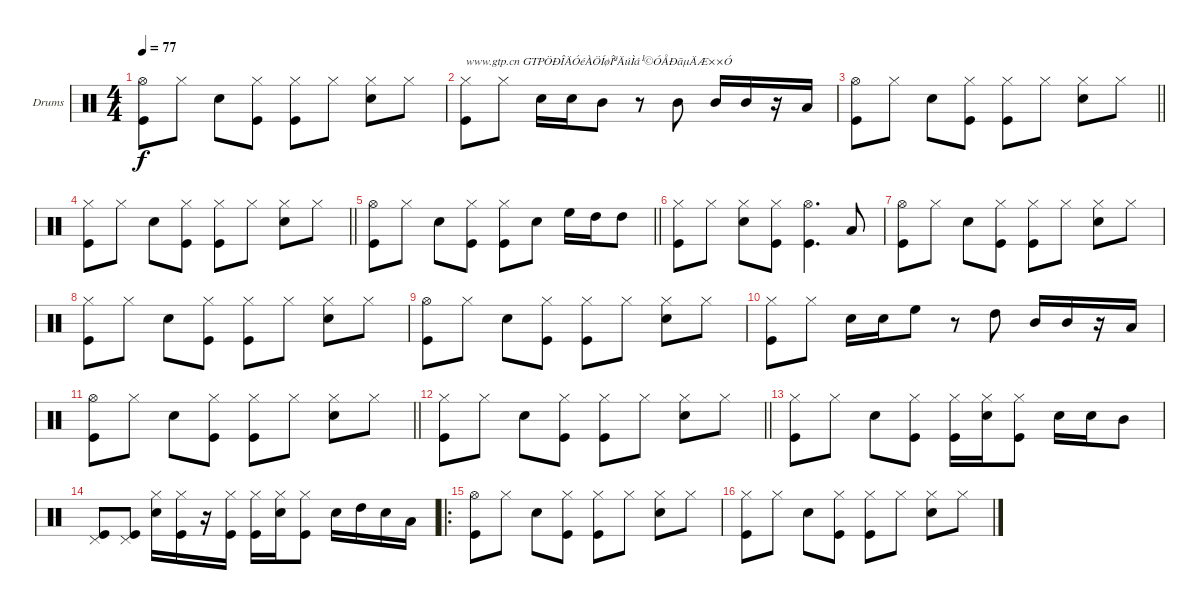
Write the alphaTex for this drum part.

\bracketExtendMode groupsimilarinstruments
\firstSystemTrackNameOrientation horizontal
\otherSystemsTrackNameOrientation horizontal
\track ("Drumkit" "Drums") {instrument percussion}
\staff {score}
\articulation defaults
\ts (4 4)
\tempo 77
\clef neutral
\ks c
("Kick (hit)" "Hi-Hat (open)").8{dy f} "Hi-Hat (closed)".8 "Snare (hit) 2".8 ("Hi-Hat (closed)" "Kick (hit)").8 ("Hi-Hat (closed)" "Kick (hit)").8 "Hi-Hat (closed)".8 ("Hi-Hat (closed)" "Snare (hit) 2").8 "Hi-Hat (closed)".8 |
("Kick (hit)" "Hi-Hat (closed)").8{txt "www.gtp.cn GTPÖÐÎÄÓéÀÖÍøÎªÄúÌá¹©ÓÅÐãµÄÆ××Ó"} "Hi-Hat (closed)".8 "Snare (hit) 2".16 "Snare (hit) 2".16 "Mid Tom (hit)".8 r.8 "Mid Tom (hit)".8 "Mid Tom (hit)".16 "Mid Tom (hit)".16 r.16 "Low Tom (hit)".16 |
\barLineRight lightlight
("Hi-Hat (open)" "Kick (hit)").8 "Hi-Hat (closed)".8 "Snare (hit) 2".8 ("Hi-Hat (closed)" "Kick (hit)").8 ("Hi-Hat (closed)" "Kick (hit)").8 "Hi-Hat (closed)".8 ("Hi-Hat (closed)" "Snare (hit) 2").8 "Hi-Hat (closed)".8 |
\section ("" "")
\barLineRight lightlight
("Kick (hit)" "Hi-Hat (closed)").8 "Hi-Hat (closed)".8 "Snare (hit) 2".8 ("Hi-Hat (closed)" "Kick (hit)").8 ("Hi-Hat (closed)" "Kick (hit)").8 "Hi-Hat (closed)".8 ("Hi-Hat (closed)" "Snare (hit) 2").8 "Hi-Hat (closed)".8 |
\section ("" "")
\barLineRight lightlight
("Kick (hit)" "Hi-Hat (open)").8 "Hi-Hat (closed)".8 "Snare (hit) 2".8 ("Hi-Hat (closed)" "Kick (hit)").8 ("Hi-Hat (closed)" "Kick (hit)").8 "Snare (hit) 2".8 "High Floor Tom (hit)".16 "High Tom (hit)".16 "High Tom (hit)".8 |
\section ("" "")
("Hi-Hat (closed)" "Kick (hit)").8 "Hi-Hat (closed)".8 ("Hi-Hat (closed)" "Snare (hit) 2").8 ("Hi-Hat (closed)" "Kick (hit)").8 ("Kick (hit)" "Hi-Hat (open)").4{d} "Low Tom (hit)".8 |
("Hi-Hat (open)" "Kick (hit)").8 "Hi-Hat (closed)".8 "Snare (hit) 2".8 ("Hi-Hat (closed)" "Kick (hit)").8 ("Hi-Hat (closed)" "Kick (hit)").8 "Hi-Hat (closed)".8 ("Hi-Hat (closed)" "Snare (hit) 2").8 "Hi-Hat (closed)".8 |
("Kick (hit)" "Hi-Hat (closed)").8 "Hi-Hat (closed)".8 "Snare (hit) 2".8 ("Hi-Hat (closed)" "Kick (hit)").8 ("Hi-Hat (closed)" "Kick (hit)").8 "Hi-Hat (closed)".8 ("Hi-Hat (closed)" "Snare (hit) 2").8 "Hi-Hat (closed)".8 |
("Kick (hit)" "Hi-Hat (open)").8 "Hi-Hat (closed)".8 "Snare (hit) 2".8 ("Hi-Hat (closed)" "Kick (hit)").8 ("Hi-Hat (closed)" "Kick (hit)").8 "Hi-Hat (closed)".8 ("Hi-Hat (closed)" "Snare (hit) 2").8 "Hi-Hat (closed)".8 |
("Kick (hit)" "Hi-Hat (closed)").8 "Hi-Hat (closed)".8 "Snare (hit) 2".16 "Snare (hit) 2".16 "High Floor Tom (hit)".8 r.8 "High Tom (hit)".8 "Mid Tom (hit)".16 "Mid Tom (hit)".16 r.16 "Low Tom (hit)".16 |
\barLineRight lightlight
("Kick (hit)" "Hi-Hat (open)").8 "Hi-Hat (closed)".8 "Snare (hit) 2".8 ("Hi-Hat (closed)" "Kick (hit)").8 ("Hi-Hat (closed)" "Kick (hit)").8 "Hi-Hat (closed)".8 ("Hi-Hat (closed)" "Snare (hit) 2").8 "Hi-Hat (closed)".8 |
\barLineRight lightlight
("Kick (hit)" "Hi-Hat (closed)").8 "Hi-Hat (closed)".8 "Snare (hit) 2".8 ("Hi-Hat (closed)" "Kick (hit)").8 ("Hi-Hat (closed)" "Kick (hit)").8 "Hi-Hat (closed)".8 ("Hi-Hat (closed)" "Snare (hit) 2").8 "Hi-Hat (closed)".8 |
("Kick (hit)" "Hi-Hat (closed)").8 "Hi-Hat (closed)".8 "Snare (hit) 2".8 ("Hi-Hat (closed)" "Kick (hit)").8 ("Hi-Hat (closed)" "Kick (hit)").16 ("Hi-Hat (closed)" "Snare (hit) 2").16 ("Hi-Hat (closed)" "Kick (hit)").8 "Snare (hit) 2".16 "Snare (hit) 2".16 "Mid Tom (hit)".8 |
("Pedal Hi-Hat (hit)" "Kick (hit)").8 ("Pedal Hi-Hat (hit)" "Kick (hit)").8 ("Hi-Hat (closed)" "Snare (hit) 2").16 ("Hi-Hat (closed)" "Kick (hit)").16 r.16 ("Hi-Hat (closed)" "Kick (hit)").16 ("Hi-Hat (closed)" "Kick (hit)").16 ("Hi-Hat (closed)" "Snare (hit) 2").16 ("Hi-Hat (closed)" "Kick (hit)").8 "Snare (hit) 2".16 "High Tom (hit)".16 "Snare (hit) 2".16 "Low Tom (hit)".16 |
\ro
("Hi-Hat (open)" "Kick (hit)").8 "Hi-Hat (closed)".8 "Snare (hit) 2".8 ("Hi-Hat (closed)" "Kick (hit)").8 ("Hi-Hat (closed)" "Kick (hit)").8 "Hi-Hat (closed)".8 ("Hi-Hat (closed)" "Snare (hit) 2").8 "Hi-Hat (closed)".8 |
("Kick (hit)" "Hi-Hat (closed)").8 "Hi-Hat (closed)".8 "Snare (hit) 2".8 ("Hi-Hat (closed)" "Kick (hit)").8 ("Hi-Hat (closed)" "Kick (hit)").8 "Hi-Hat (closed)".8 ("Hi-Hat (closed)" "Snare (hit) 2").8 "Hi-Hat (closed)".8
